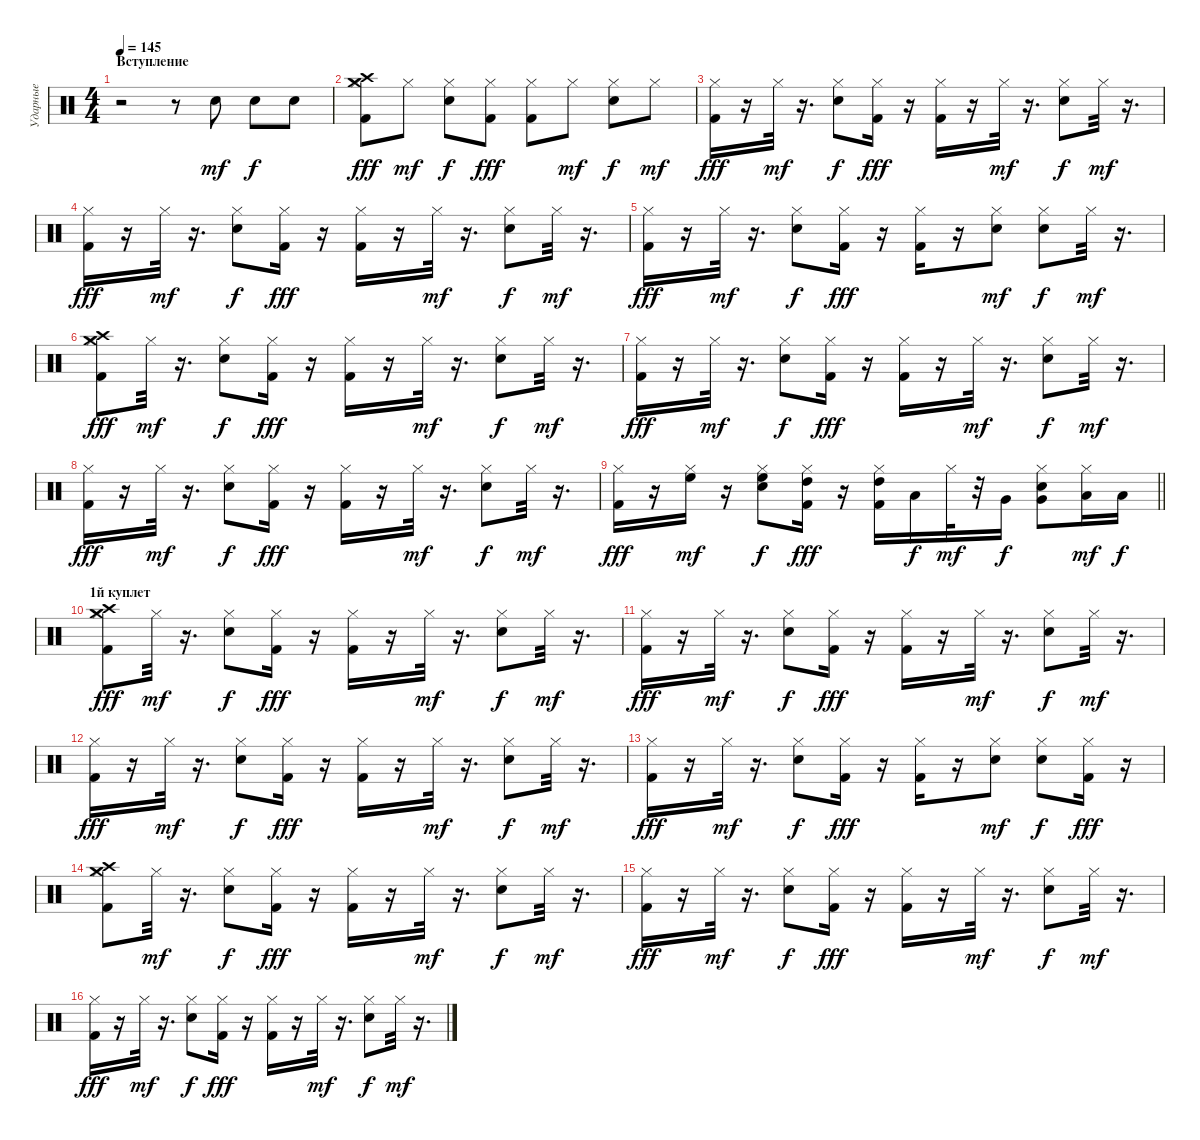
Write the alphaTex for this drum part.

\track ("Ударные" "Ударные") {instrument percussion}
\staff {score}
\articulation defaults
\ts (4 4)
\section ("" "Вступление")
\tempo 145
\clef neutral
\ks c
r.2{dy mf} r.8 "Snare (hit) 2".8 "Snare (hit) 2".8{dy f} "Snare (hit) 2".8 |
("Hi-Hat (closed)" "Crash high (hit)" "Crash medium (hit)" "Kick (hit) 2").8{dy fff} "Hi-Hat (closed)".8{dy mf} ("Snare (hit) 2" "Hi-Hat (closed)").8{dy f} ("Hi-Hat (closed)" "Kick (hit) 2").8{dy fff} ("Hi-Hat (closed)" "Kick (hit) 2").8 "Hi-Hat (closed)".8{dy mf} ("Snare (hit) 2" "Hi-Hat (closed)").8{dy f} "Hi-Hat (closed)".8{dy mf} |
("Hi-Hat (closed)" "Kick (hit) 2").16{dy fff} r.16 "Hi-Hat (closed)".32{dy mf} r.16{d} ("Snare (hit) 2" "Hi-Hat (closed)").8{dy f} ("Hi-Hat (closed)" "Kick (hit) 2").16{dy fff} r.16 ("Hi-Hat (closed)" "Kick (hit) 2").16 r.16 "Hi-Hat (closed)".32{dy mf} r.16{d} ("Snare (hit) 2" "Hi-Hat (closed)").8{dy f} "Hi-Hat (closed)".32{dy mf} r.16{d} |
("Hi-Hat (closed)" "Kick (hit) 2").16{dy fff} r.16 "Hi-Hat (closed)".32{dy mf} r.16{d} ("Snare (hit) 2" "Hi-Hat (closed)").8{dy f} ("Hi-Hat (closed)" "Kick (hit) 2").16{dy fff} r.16 ("Hi-Hat (closed)" "Kick (hit) 2").16 r.16 "Hi-Hat (closed)".32{dy mf} r.16{d} ("Snare (hit) 2" "Hi-Hat (closed)").8{dy f} "Hi-Hat (closed)".32{dy mf} r.16{d} |
("Hi-Hat (closed)" "Kick (hit) 2").16{dy fff} r.16 "Hi-Hat (closed)".32{dy mf} r.16{d} ("Snare (hit) 2" "Hi-Hat (closed)").8{dy f} ("Hi-Hat (closed)" "Kick (hit) 2").16{dy fff} r.16 ("Hi-Hat (closed)" "Kick (hit) 2").16 r.16 ("Snare (hit) 2" "Hi-Hat (closed)").8{dy mf} ("Snare (hit) 2" "Hi-Hat (closed)").8{dy f} "Hi-Hat (closed)".32{dy mf} r.16{d} |
("Hi-Hat (closed)" "Crash high (hit)" "Crash medium (hit)" "Kick (hit) 2").8{dy fff} "Hi-Hat (closed)".32{dy mf} r.16{d} ("Snare (hit) 2" "Hi-Hat (closed)").8{dy f} ("Hi-Hat (closed)" "Kick (hit) 2").16{dy fff} r.16 ("Hi-Hat (closed)" "Kick (hit) 2").16 r.16 "Hi-Hat (closed)".32{dy mf} r.16{d} ("Snare (hit) 2" "Hi-Hat (closed)").8{dy f} "Hi-Hat (closed)".32{dy mf} r.16{d} |
("Hi-Hat (closed)" "Kick (hit) 2").16{dy fff} r.16 "Hi-Hat (closed)".32{dy mf} r.16{d} ("Snare (hit) 2" "Hi-Hat (closed)").8{dy f} ("Hi-Hat (closed)" "Kick (hit) 2").16{dy fff} r.16 ("Hi-Hat (closed)" "Kick (hit) 2").16 r.16 "Hi-Hat (closed)".32{dy mf} r.16{d} ("Snare (hit) 2" "Hi-Hat (closed)").8{dy f} "Hi-Hat (closed)".32{dy mf} r.16{d} |
("Hi-Hat (closed)" "Kick (hit) 2").16{dy fff} r.16 "Hi-Hat (closed)".32{dy mf} r.16{d} ("Snare (hit) 2" "Hi-Hat (closed)").8{dy f} ("Hi-Hat (closed)" "Kick (hit) 2").16{dy fff} r.16 ("Hi-Hat (closed)" "Kick (hit) 2").16 r.16 "Hi-Hat (closed)".32{dy mf} r.16{d} ("Snare (hit) 2" "Hi-Hat (closed)").8{dy f} "Hi-Hat (closed)".32{dy mf} r.16{d} |
\barLineRight lightlight
("Hi-Hat (closed)" "Kick (hit) 2").16{dy fff} r.16 ("High Floor Tom (hit)" "Hi-Hat (closed)").16{dy mf} r.16 ("High Floor Tom (hit)" "Snare (hit) 2" "Hi-Hat (closed)").8{dy f} ("High Tom (hit)" "Hi-Hat (closed)" "Kick (hit) 2").16{dy fff} r.16 ("High Tom (hit)" "Hi-Hat (closed)" "Kick (hit) 2").16 "Low Tom (hit)".16{dy f} "Hi-Hat (closed)".32{dy mf} r.32 "Very Low Tom (hit)".16{dy f} ("Very Low Tom (hit)" "Snare (hit) 2" "Hi-Hat (closed)").8 ("Low Floor Tom (hit)" "Hi-Hat (closed)").16{dy mf} "Low Floor Tom (hit)".16{dy f} |
\section ("" "1й куплет")
("Hi-Hat (closed)" "Crash high (hit)" "Crash medium (hit)" "Kick (hit) 2").8{dy fff} "Hi-Hat (closed)".32{dy mf} r.16{d} ("Snare (hit) 2" "Hi-Hat (closed)").8{dy f} ("Hi-Hat (closed)" "Kick (hit) 2").16{dy fff} r.16 ("Hi-Hat (closed)" "Kick (hit) 2").16 r.16 "Hi-Hat (closed)".32{dy mf} r.16{d} ("Snare (hit) 2" "Hi-Hat (closed)").8{dy f} "Hi-Hat (closed)".32{dy mf} r.16{d} |
("Hi-Hat (closed)" "Kick (hit) 2").16{dy fff} r.16 "Hi-Hat (closed)".32{dy mf} r.16{d} ("Snare (hit) 2" "Hi-Hat (closed)").8{dy f} ("Hi-Hat (closed)" "Kick (hit) 2").16{dy fff} r.16 ("Hi-Hat (closed)" "Kick (hit) 2").16 r.16 "Hi-Hat (closed)".32{dy mf} r.16{d} ("Snare (hit) 2" "Hi-Hat (closed)").8{dy f} "Hi-Hat (closed)".32{dy mf} r.16{d} |
("Hi-Hat (closed)" "Kick (hit) 2").16{dy fff} r.16 "Hi-Hat (closed)".32{dy mf} r.16{d} ("Snare (hit) 2" "Hi-Hat (closed)").8{dy f} ("Hi-Hat (closed)" "Kick (hit) 2").16{dy fff} r.16 ("Hi-Hat (closed)" "Kick (hit) 2").16 r.16 "Hi-Hat (closed)".32{dy mf} r.16{d} ("Snare (hit) 2" "Hi-Hat (closed)").8{dy f} "Hi-Hat (closed)".32{dy mf} r.16{d} |
("Hi-Hat (closed)" "Kick (hit) 2").16{dy fff} r.16 "Hi-Hat (closed)".32{dy mf} r.16{d} ("Snare (hit) 2" "Hi-Hat (closed)").8{dy f} ("Hi-Hat (closed)" "Kick (hit) 2").16{dy fff} r.16 ("Hi-Hat (closed)" "Kick (hit) 2").16 r.16 ("Snare (hit) 2" "Hi-Hat (closed)").8{dy mf} ("Snare (hit) 2" "Hi-Hat (closed)").8{dy f} ("Hi-Hat (closed)" "Kick (hit) 2").16{dy fff} r.16 |
("Hi-Hat (closed)" "Crash high (hit)" "Crash medium (hit)" "Kick (hit) 2").8 "Hi-Hat (closed)".32{dy mf} r.16{d} ("Snare (hit) 2" "Hi-Hat (closed)").8{dy f} ("Hi-Hat (closed)" "Kick (hit) 2").16{dy fff} r.16 ("Hi-Hat (closed)" "Kick (hit) 2").16 r.16 "Hi-Hat (closed)".32{dy mf} r.16{d} ("Snare (hit) 2" "Hi-Hat (closed)").8{dy f} "Hi-Hat (closed)".32{dy mf} r.16{d} |
("Hi-Hat (closed)" "Kick (hit) 2").16{dy fff} r.16 "Hi-Hat (closed)".32{dy mf} r.16{d} ("Snare (hit) 2" "Hi-Hat (closed)").8{dy f} ("Hi-Hat (closed)" "Kick (hit) 2").16{dy fff} r.16 ("Hi-Hat (closed)" "Kick (hit) 2").16 r.16 "Hi-Hat (closed)".32{dy mf} r.16{d} ("Snare (hit) 2" "Hi-Hat (closed)").8{dy f} "Hi-Hat (closed)".32{dy mf} r.16{d} |
("Hi-Hat (closed)" "Kick (hit) 2").16{dy fff} r.16 "Hi-Hat (closed)".32{dy mf} r.16{d} ("Snare (hit) 2" "Hi-Hat (closed)").8{dy f} ("Hi-Hat (closed)" "Kick (hit) 2").16{dy fff} r.16 ("Hi-Hat (closed)" "Kick (hit) 2").16 r.16 "Hi-Hat (closed)".32{dy mf} r.16{d} ("Snare (hit) 2" "Hi-Hat (closed)").8{dy f} "Hi-Hat (closed)".32{dy mf} r.16{d}
